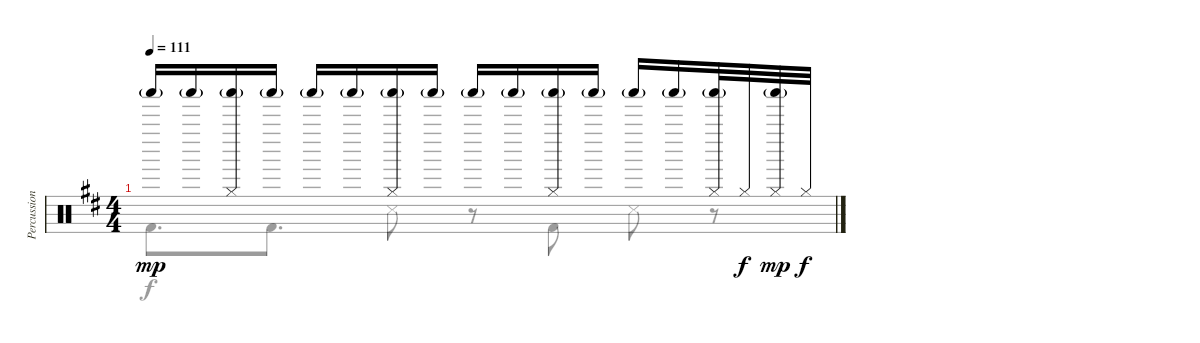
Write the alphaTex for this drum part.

\track ("Percussion" "Percussion") {instrument percussion}
\staff {score}
\articulation defaults
\voice
\ts (4 4)
\tempo 111
\clef neutral
\ks d "Shaker (hit)"{g}.16{dy mp} "Shaker (hit)"{g}.16
("Shaker (hit)"{g} "Hi-Hat (closed)").16 "Shaker (hit)"{g}.16 "Shaker (hit)"{g}.16 "Shaker (hit)"{g}.16 ("Shaker (hit)"{g} "Hi-Hat (closed)").16 "Shaker (hit)"{g}.16 "Shaker (hit)"{g}.16 "Shaker (hit)"{g}.16 ("Shaker (hit)"{g} "Hi-Hat (closed)").16 "Shaker (hit)"{g}.16 "Shaker (hit)"{g}.16 "Shaker (hit)"{g}.16 ("Shaker (hit)"{g} "Hi-Hat (closed)").32 "Hi-Hat (closed)".32{dy f} ("Shaker (hit)"{g} "Hi-Hat (closed)").32{dy mp} "Hi-Hat (closed)".32{dy f} |
|
\voice
\clef neutral
\ottava regular
\simile none
\ks d "Kick (hit) 2".8{d dy f} "Kick (hit) 2".8{d} "Snare (side stick) 3".8
r.8 "Kick (hit) 2".8 "Snare (side stick) 3".8 r.8 |
|
